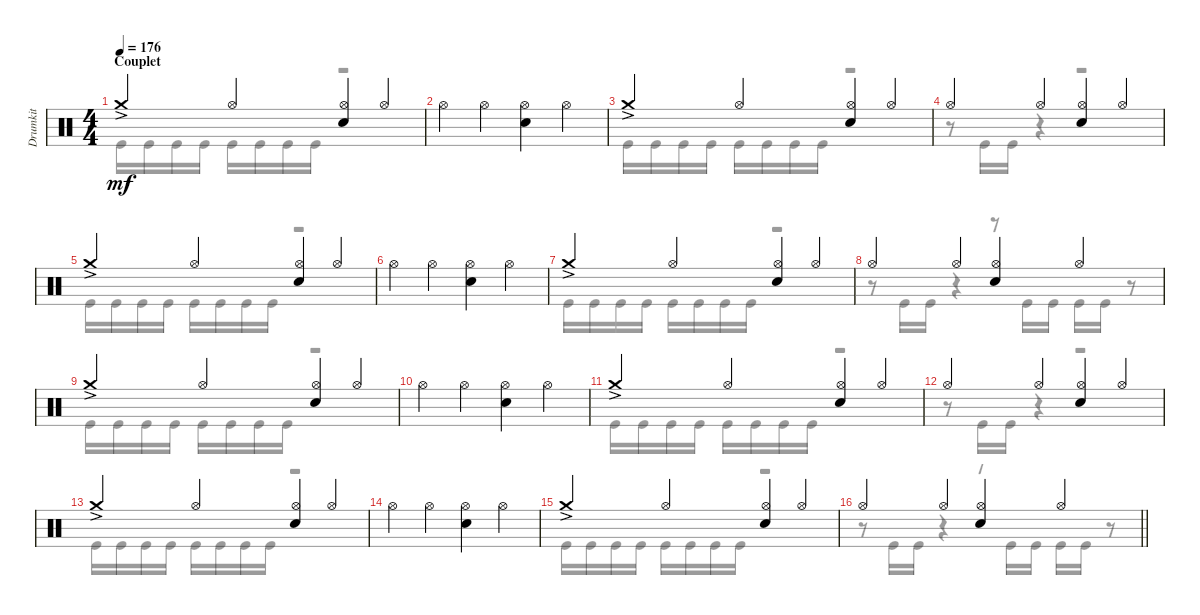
\track ("Drumkit" "Drumkit") {instrument percussion}
\staff {score}
\articulation defaults
\voice
\ts (4 4)
\section ("" "Couplet")
\tempo 176
\clef neutral
\ks c "Crash medium (hit)"{ac}.4{dy mf} "Hi-Hat (open)".4
("Hi-Hat (open)" "Snare (hit) 2").4 "Hi-Hat (open)".4 |
"Hi-Hat (open)".4 "Hi-Hat (open)".4 ("Hi-Hat (open)" "Snare (hit) 2").4 "Hi-Hat (open)".4 |
"Crash medium (hit)"{ac}.4 "Hi-Hat (open)".4 ("Hi-Hat (open)" "Snare (hit) 2").4 "Hi-Hat (open)".4 |
"Hi-Hat (open)".4 "Hi-Hat (open)".4 ("Hi-Hat (open)" "Snare (hit) 2").4 "Hi-Hat (open)".4 |
"Crash medium (hit)"{ac}.4 "Hi-Hat (open)".4 ("Hi-Hat (open)" "Snare (hit) 2").4 "Hi-Hat (open)".4 |
"Hi-Hat (open)".4 "Hi-Hat (open)".4 ("Hi-Hat (open)" "Snare (hit) 2").4 "Hi-Hat (open)".4 |
"Crash medium (hit)"{ac}.4 "Hi-Hat (open)".4 ("Hi-Hat (open)" "Snare (hit) 2").4 "Hi-Hat (open)".4 |
"Hi-Hat (open)".4 "Hi-Hat (open)".4 ("Hi-Hat (open)" "Snare (hit) 2").4 "Hi-Hat (open)".4 |
"Crash medium (hit)"{ac}.4 "Hi-Hat (open)".4 ("Hi-Hat (open)" "Snare (hit) 2").4 "Hi-Hat (open)".4 |
"Hi-Hat (open)".4 "Hi-Hat (open)".4 ("Hi-Hat (open)" "Snare (hit) 2").4 "Hi-Hat (open)".4 |
"Crash medium (hit)"{ac}.4 "Hi-Hat (open)".4 ("Hi-Hat (open)" "Snare (hit) 2").4 "Hi-Hat (open)".4 |
"Hi-Hat (open)".4 "Hi-Hat (open)".4 ("Hi-Hat (open)" "Snare (hit) 2").4 "Hi-Hat (open)".4 |
"Crash medium (hit)"{ac}.4 "Hi-Hat (open)".4 ("Hi-Hat (open)" "Snare (hit) 2").4 "Hi-Hat (open)".4 |
"Hi-Hat (open)".4 "Hi-Hat (open)".4 ("Hi-Hat (open)" "Snare (hit) 2").4 "Hi-Hat (open)".4 |
"Crash medium (hit)"{ac}.4 "Hi-Hat (open)".4 ("Hi-Hat (open)" "Snare (hit) 2").4 "Hi-Hat (open)".4 |
\barLineRight lightlight "Hi-Hat (open)".4 "Hi-Hat (open)".4
("Hi-Hat (open)" "Snare (hit) 2").4 "Hi-Hat (open)".4
\voice
\clef neutral
\ottava regular
\simile none
\ks c "Kick (hit)".16{dy mf} "Kick (hit)".16 "Kick (hit)".16 "Kick (hit)".16 "Kick (hit)".16 "Kick (hit)".16 "Kick (hit)".16 "Kick (hit)".16
r.2 |
|
"Kick (hit)".16 "Kick (hit)".16 "Kick (hit)".16 "Kick (hit)".16 "Kick (hit)".16 "Kick (hit)".16 "Kick (hit)".16 "Kick (hit)".16 r.2 |
r.8 "Kick (hit)".16 "Kick (hit)".16 r.4 r.2 |
"Kick (hit)".16 "Kick (hit)".16 "Kick (hit)".16 "Kick (hit)".16 "Kick (hit)".16 "Kick (hit)".16 "Kick (hit)".16 "Kick (hit)".16 r.2 |
|
"Kick (hit)".16 "Kick (hit)".16 "Kick (hit)".16 "Kick (hit)".16 "Kick (hit)".16 "Kick (hit)".16 "Kick (hit)".16 "Kick (hit)".16 r.2 |
r.8 "Kick (hit)".16 "Kick (hit)".16 r.4 r.8 "Kick (hit)".16 "Kick (hit)".16 "Kick (hit)".16 "Kick (hit)".16 r.8 |
"Kick (hit)".16 "Kick (hit)".16 "Kick (hit)".16 "Kick (hit)".16 "Kick (hit)".16 "Kick (hit)".16 "Kick (hit)".16 "Kick (hit)".16 r.2 |
|
"Kick (hit)".16 "Kick (hit)".16 "Kick (hit)".16 "Kick (hit)".16 "Kick (hit)".16 "Kick (hit)".16 "Kick (hit)".16 "Kick (hit)".16 r.2 |
r.8 "Kick (hit)".16 "Kick (hit)".16 r.4 r.2 |
"Kick (hit)".16 "Kick (hit)".16 "Kick (hit)".16 "Kick (hit)".16 "Kick (hit)".16 "Kick (hit)".16 "Kick (hit)".16 "Kick (hit)".16 r.2 |
|
"Kick (hit)".16 "Kick (hit)".16 "Kick (hit)".16 "Kick (hit)".16 "Kick (hit)".16 "Kick (hit)".16 "Kick (hit)".16 "Kick (hit)".16 r.2 |
\barLineRight lightlight
r.8 "Kick (hit)".16 "Kick (hit)".16 r.4 r.8 "Kick (hit)".16 "Kick (hit)".16 "Kick (hit)".16 "Kick (hit)".16 r.8
